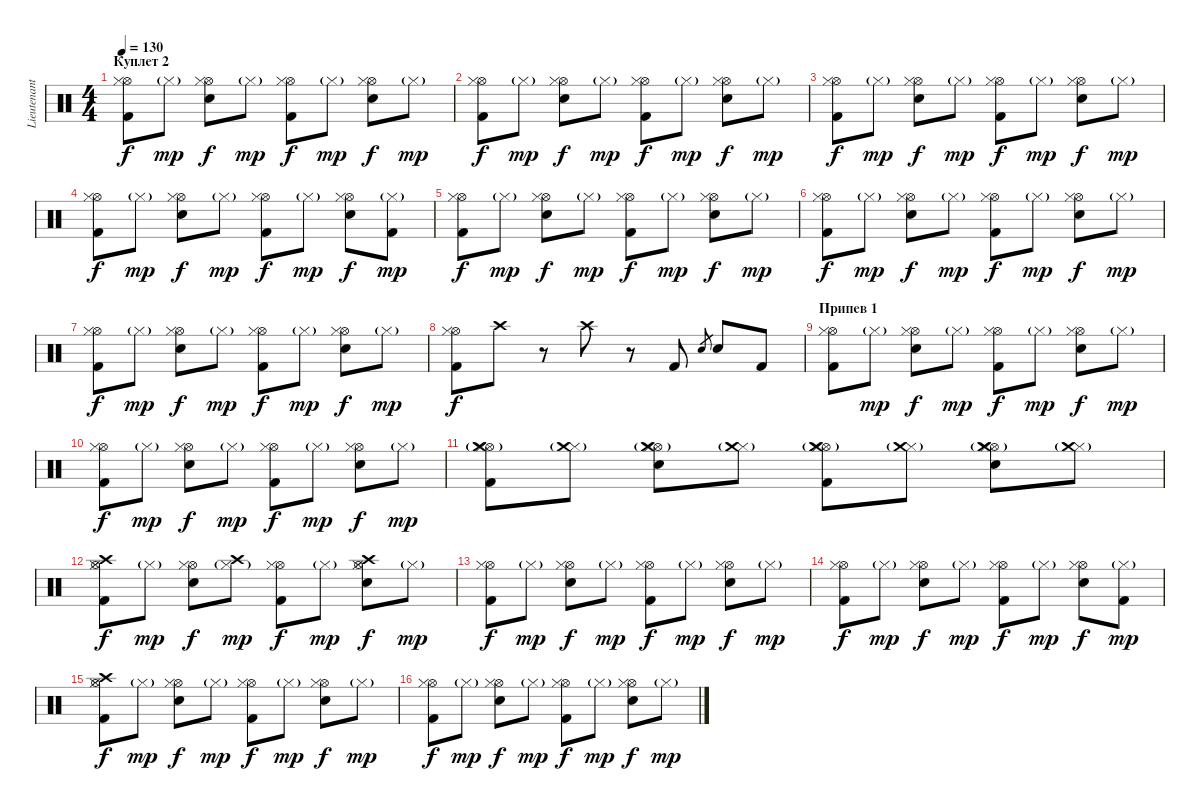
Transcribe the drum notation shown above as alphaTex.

\track ("Lieutenant [drums]" "Lieutenant") {instrument percussion}
\staff {score}
\articulation defaults
\ts (4 4)
\section ("" "Куплет 2")
\tempo 130
\clef neutral
\ks c
("Kick (hit) 2" "Hi-Hat (open)" "Hi-Hat (closed)").8{dy f} "Hi-Hat (closed)"{g}.8{dy mp} ("Snare (hit) 2" "Hi-Hat (open)" "Hi-Hat (closed)").8{dy f} "Hi-Hat (closed)"{g}.8{dy mp} ("Kick (hit) 2" "Hi-Hat (open)" "Hi-Hat (closed)").8{dy f} "Hi-Hat (closed)"{g}.8{dy mp} ("Snare (hit) 2" "Hi-Hat (open)" "Hi-Hat (closed)").8{dy f} "Hi-Hat (closed)"{g}.8{dy mp} |
("Kick (hit) 2" "Hi-Hat (open)" "Hi-Hat (closed)").8{dy f} "Hi-Hat (closed)"{g}.8{dy mp} ("Snare (hit) 2" "Hi-Hat (open)" "Hi-Hat (closed)").8{dy f} "Hi-Hat (closed)"{g}.8{dy mp} ("Kick (hit) 2" "Hi-Hat (open)" "Hi-Hat (closed)").8{dy f} "Hi-Hat (closed)"{g}.8{dy mp} ("Snare (hit) 2" "Hi-Hat (open)" "Hi-Hat (closed)").8{dy f} "Hi-Hat (closed)"{g}.8{dy mp} |
("Kick (hit) 2" "Hi-Hat (open)" "Hi-Hat (closed)").8{dy f} "Hi-Hat (closed)"{g}.8{dy mp} ("Snare (hit) 2" "Hi-Hat (open)" "Hi-Hat (closed)").8{dy f} "Hi-Hat (closed)"{g}.8{dy mp} ("Kick (hit) 2" "Hi-Hat (open)" "Hi-Hat (closed)").8{dy f} "Hi-Hat (closed)"{g}.8{dy mp} ("Snare (hit) 2" "Hi-Hat (open)" "Hi-Hat (closed)").8{dy f} "Hi-Hat (closed)"{g}.8{dy mp} |
("Kick (hit) 2" "Hi-Hat (open)" "Hi-Hat (closed)").8{dy f} "Hi-Hat (closed)"{g}.8{dy mp} ("Snare (hit) 2" "Hi-Hat (open)" "Hi-Hat (closed)").8{dy f} "Hi-Hat (closed)"{g}.8{dy mp} ("Kick (hit) 2" "Hi-Hat (open)" "Hi-Hat (closed)").8{dy f} "Hi-Hat (closed)"{g}.8{dy mp} ("Snare (hit) 2" "Hi-Hat (open)" "Hi-Hat (closed)").8{dy f} ("Kick (hit) 2" "Hi-Hat (closed)"{g}).8{dy mp} |
("Kick (hit) 2" "Hi-Hat (open)" "Hi-Hat (closed)").8{dy f} "Hi-Hat (closed)"{g}.8{dy mp} ("Snare (hit) 2" "Hi-Hat (open)" "Hi-Hat (closed)").8{dy f} "Hi-Hat (closed)"{g}.8{dy mp} ("Kick (hit) 2" "Hi-Hat (open)" "Hi-Hat (closed)").8{dy f} "Hi-Hat (closed)"{g}.8{dy mp} ("Snare (hit) 2" "Hi-Hat (open)" "Hi-Hat (closed)").8{dy f} "Hi-Hat (closed)"{g}.8{dy mp} |
("Kick (hit) 2" "Hi-Hat (open)" "Hi-Hat (closed)").8{dy f} "Hi-Hat (closed)"{g}.8{dy mp} ("Snare (hit) 2" "Hi-Hat (open)" "Hi-Hat (closed)").8{dy f} "Hi-Hat (closed)"{g}.8{dy mp} ("Kick (hit) 2" "Hi-Hat (open)" "Hi-Hat (closed)").8{dy f} "Hi-Hat (closed)"{g}.8{dy mp} ("Snare (hit) 2" "Hi-Hat (open)" "Hi-Hat (closed)").8{dy f} "Hi-Hat (closed)"{g}.8{dy mp} |
("Kick (hit) 2" "Hi-Hat (open)" "Hi-Hat (closed)").8{dy f} "Hi-Hat (closed)"{g}.8{dy mp} ("Snare (hit) 2" "Hi-Hat (open)" "Hi-Hat (closed)").8{dy f} "Hi-Hat (closed)"{g}.8{dy mp} ("Kick (hit) 2" "Hi-Hat (open)" "Hi-Hat (closed)").8{dy f} "Hi-Hat (closed)"{g}.8{dy mp} ("Snare (hit) 2" "Hi-Hat (open)" "Hi-Hat (closed)").8{dy f} "Hi-Hat (closed)"{g}.8{dy mp} |
("Kick (hit) 2" "Hi-Hat (open)" "Hi-Hat (closed)").8{dy f} "Crash high (hit)".8 r.8 "Crash high (hit)".8 r.8 "Kick (hit) 2".8 "Snare (hit) 2".8{gr} "Snare (hit) 2".8 "Kick (hit) 2".8 |
\section ("" "Припев 1")
("Kick (hit) 2" "Hi-Hat (open)" "Hi-Hat (closed)").8 "Hi-Hat (closed)"{g}.8{dy mp} ("Snare (hit) 2" "Hi-Hat (open)" "Hi-Hat (closed)").8{dy f} "Hi-Hat (closed)"{g}.8{dy mp} ("Kick (hit) 2" "Hi-Hat (open)" "Hi-Hat (closed)").8{dy f} "Hi-Hat (closed)"{g}.8{dy mp} ("Snare (hit) 2" "Hi-Hat (open)" "Hi-Hat (closed)").8{dy f} "Hi-Hat (closed)"{g}.8{dy mp} |
("Kick (hit) 2" "Hi-Hat (open)" "Hi-Hat (closed)").8{dy f} "Hi-Hat (closed)"{g}.8{dy mp} ("Snare (hit) 2" "Hi-Hat (open)" "Hi-Hat (closed)").8{dy f} "Hi-Hat (closed)"{g}.8{dy mp} ("Kick (hit) 2" "Hi-Hat (open)" "Hi-Hat (closed)").8{dy f} "Hi-Hat (closed)"{g}.8{dy mp} ("Snare (hit) 2" "Hi-Hat (open)" "Hi-Hat (closed)").8{dy f} "Hi-Hat (closed)"{g}.8{dy mp} |
("Kick (hit) 2" "Hi-Hat (open)" "Hi-Hat (closed)" "Crash medium (hit)"{g}).8 ("Hi-Hat (closed)"{g} "Crash medium (hit)"{g}).8 ("Snare (hit) 2" "Hi-Hat (open)" "Hi-Hat (closed)" "Crash medium (hit)"{g}).8 ("Hi-Hat (closed)"{g} "Crash medium (hit)"{g}).8 ("Kick (hit) 2" "Hi-Hat (open)" "Hi-Hat (closed)" "Crash medium (hit)"{g}).8 ("Hi-Hat (closed)"{g} "Crash medium (hit)"{g}).8 ("Snare (hit) 2" "Hi-Hat (open)" "Hi-Hat (closed)" "Crash medium (hit)"{g}).8 ("Hi-Hat (closed)"{g} "Crash medium (hit)"{g}).8 |
("Kick (hit) 2" "Hi-Hat (open)" "Hi-Hat (closed)" "Crash high (hit)").8{dy f} "Hi-Hat (closed)"{g}.8{dy mp} ("Snare (hit) 2" "Hi-Hat (open)" "Hi-Hat (closed)").8{dy f} ("Hi-Hat (closed)"{g} "Crash high (hit)").8{dy mp} ("Kick (hit) 2" "Hi-Hat (open)" "Hi-Hat (closed)").8{dy f} "Hi-Hat (closed)"{g}.8{dy mp} ("Snare (hit) 2" "Hi-Hat (open)" "Hi-Hat (closed)" "Crash high (hit)").8{dy f} "Hi-Hat (closed)"{g}.8{dy mp} |
("Kick (hit) 2" "Hi-Hat (open)" "Hi-Hat (closed)").8{dy f} "Hi-Hat (closed)"{g}.8{dy mp} ("Snare (hit) 2" "Hi-Hat (open)" "Hi-Hat (closed)").8{dy f} "Hi-Hat (closed)"{g}.8{dy mp} ("Kick (hit) 2" "Hi-Hat (open)" "Hi-Hat (closed)").8{dy f} "Hi-Hat (closed)"{g}.8{dy mp} ("Snare (hit) 2" "Hi-Hat (open)" "Hi-Hat (closed)").8{dy f} "Hi-Hat (closed)"{g}.8{dy mp} |
("Kick (hit) 2" "Hi-Hat (open)" "Hi-Hat (closed)").8{dy f} "Hi-Hat (closed)"{g}.8{dy mp} ("Snare (hit) 2" "Hi-Hat (open)" "Hi-Hat (closed)").8{dy f} "Hi-Hat (closed)"{g}.8{dy mp} ("Kick (hit) 2" "Hi-Hat (open)" "Hi-Hat (closed)").8{dy f} "Hi-Hat (closed)"{g}.8{dy mp} ("Snare (hit) 2" "Hi-Hat (open)" "Hi-Hat (closed)").8{dy f} ("Kick (hit) 2" "Hi-Hat (closed)"{g}).8{dy mp} |
("Kick (hit) 2" "Hi-Hat (open)" "Hi-Hat (closed)" "Crash high (hit)").8{dy f} "Hi-Hat (closed)"{g}.8{dy mp} ("Snare (hit) 2" "Hi-Hat (open)" "Hi-Hat (closed)").8{dy f} "Hi-Hat (closed)"{g}.8{dy mp} ("Kick (hit) 2" "Hi-Hat (open)" "Hi-Hat (closed)").8{dy f} "Hi-Hat (closed)"{g}.8{dy mp} ("Snare (hit) 2" "Hi-Hat (open)" "Hi-Hat (closed)").8{dy f} "Hi-Hat (closed)"{g}.8{dy mp} |
("Kick (hit) 2" "Hi-Hat (open)" "Hi-Hat (closed)").8{dy f} "Hi-Hat (closed)"{g}.8{dy mp} ("Snare (hit) 2" "Hi-Hat (open)" "Hi-Hat (closed)").8{dy f} "Hi-Hat (closed)"{g}.8{dy mp} ("Kick (hit) 2" "Hi-Hat (open)" "Hi-Hat (closed)").8{dy f} "Hi-Hat (closed)"{g}.8{dy mp} ("Snare (hit) 2" "Hi-Hat (open)" "Hi-Hat (closed)").8{dy f} "Hi-Hat (closed)"{g}.8{dy mp}
